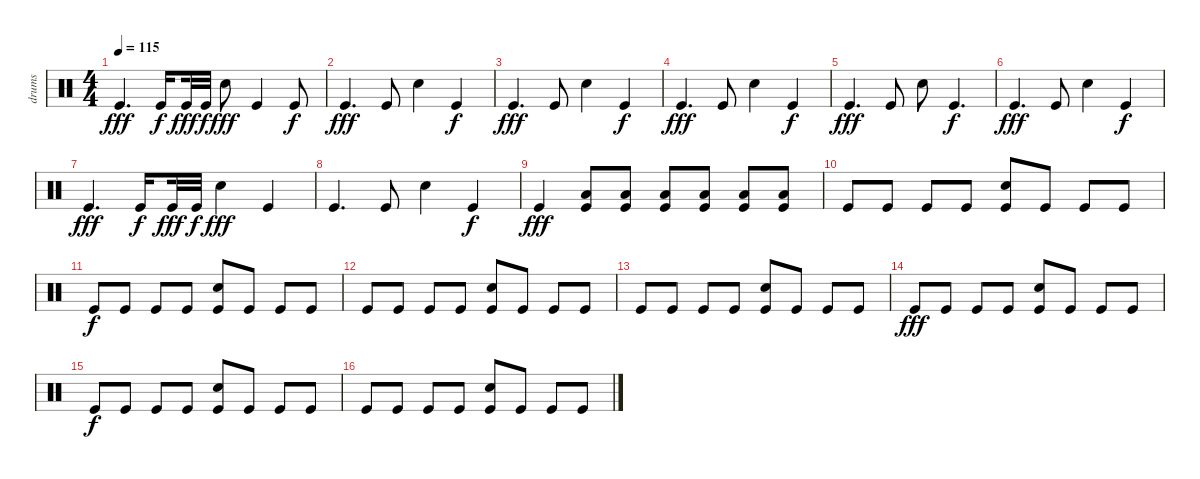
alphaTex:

\track ("drums" "drums") {instrument percussion}
\staff {score}
\articulation defaults
\ts (4 4)
\tempo 115
\clef neutral
\ks c "Kick (hit)".4{d dy fff} "Kick (hit)".16{dy f beam splitsecondary} "Kick (hit)".32{dy fff} "Kick (hit)".32{dy f} "Electric Snare (hit)".8{dy fff} "Kick (hit)".4 "Kick (hit)".8{dy f}
|
"Kick (hit)".4{d dy fff} "Kick (hit)".8 "Electric Snare (hit)".4 "Kick (hit)".4{dy f} |
"Kick (hit)".4{d dy fff} "Kick (hit)".8 "Electric Snare (hit)".4 "Kick (hit)".4{dy f} |
"Kick (hit)".4{d dy fff} "Kick (hit)".8 "Electric Snare (hit)".4 "Kick (hit)".4{dy f} |
"Kick (hit)".4{d dy fff} "Kick (hit)".8 "Electric Snare (hit)".8 "Kick (hit)".4{d dy f} |
"Kick (hit)".4{d dy fff} "Kick (hit)".8 "Electric Snare (hit)".4 "Kick (hit)".4{dy f} |
"Kick (hit)".4{d dy fff} "Kick (hit)".16{dy f beam splitsecondary} "Kick (hit)".32{dy fff} "Kick (hit)".32{dy f} "Electric Snare (hit)".4{dy fff} "Kick (hit)".4 |
"Kick (hit)".4{d} "Kick (hit)".8 "Electric Snare (hit)".4 "Kick (hit)".4{dy f} |
"Kick (hit)".4{dy fff} ("Low Floor Tom (hit)" "Kick (hit)").8 ("Low Floor Tom (hit)" "Kick (hit)").8 ("Low Floor Tom (hit)" "Kick (hit)").8 ("Low Floor Tom (hit)" "Kick (hit)").8 ("Low Floor Tom (hit)" "Kick (hit)").8 ("Low Floor Tom (hit)" "Kick (hit)").8 |
"Kick (hit)".8 "Kick (hit)".8 "Kick (hit)".8 "Kick (hit)".8 ("Electric Snare (hit)" "Kick (hit)").8 "Kick (hit)".8 "Kick (hit)".8 "Kick (hit)".8 |
"Kick (hit)".8{dy f} "Kick (hit)".8 "Kick (hit)".8 "Kick (hit)".8 ("Electric Snare (hit)" "Kick (hit)").8 "Kick (hit)".8 "Kick (hit)".8 "Kick (hit)".8 |
"Kick (hit)".8 "Kick (hit)".8 "Kick (hit)".8 "Kick (hit)".8 ("Electric Snare (hit)" "Kick (hit)").8 "Kick (hit)".8 "Kick (hit)".8 "Kick (hit)".8 |
"Kick (hit)".8 "Kick (hit)".8 "Kick (hit)".8 "Kick (hit)".8 ("Electric Snare (hit)" "Kick (hit)").8 "Kick (hit)".8 "Kick (hit)".8 "Kick (hit)".8 |
"Kick (hit)".8{dy fff} "Kick (hit)".8 "Kick (hit)".8 "Kick (hit)".8 ("Electric Snare (hit)" "Kick (hit)").8 "Kick (hit)".8 "Kick (hit)".8 "Kick (hit)".8 |
"Kick (hit)".8{dy f} "Kick (hit)".8 "Kick (hit)".8 "Kick (hit)".8 ("Electric Snare (hit)" "Kick (hit)").8 "Kick (hit)".8 "Kick (hit)".8 "Kick (hit)".8 |
"Kick (hit)".8 "Kick (hit)".8 "Kick (hit)".8 "Kick (hit)".8 ("Electric Snare (hit)" "Kick (hit)").8 "Kick (hit)".8 "Kick (hit)".8 "Kick (hit)".8
